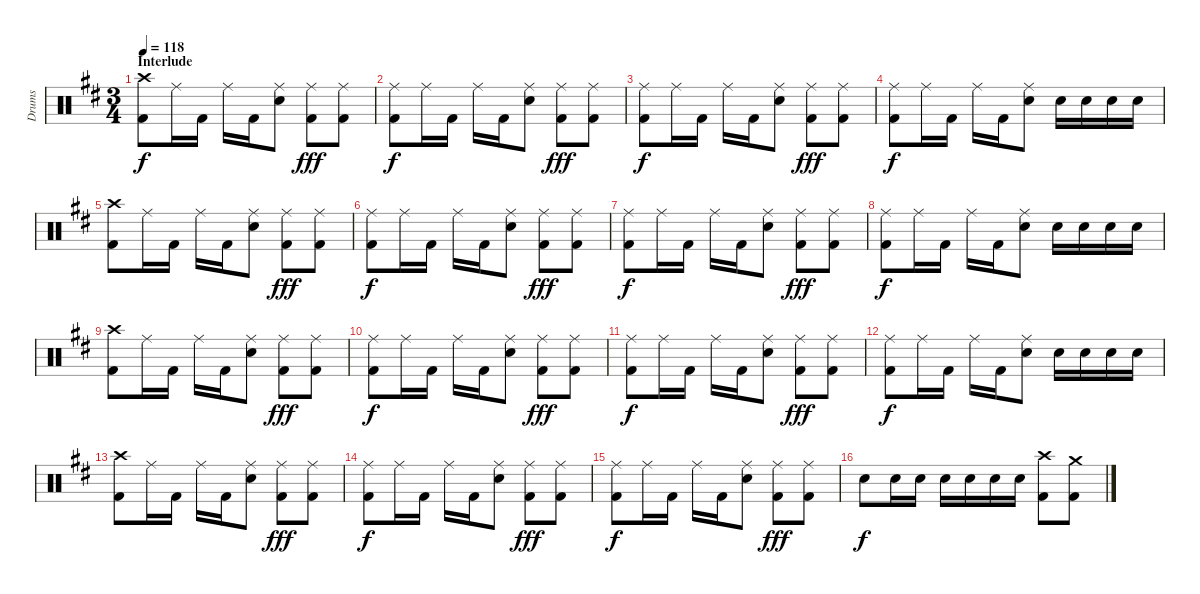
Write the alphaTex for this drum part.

\track ("Drums" "Drums") {instrument percussion}
\staff {score}
\articulation defaults
\ts (3 4)
\section ("" "Interlude")
\tempo 118
\clef neutral
\ks bminor
("Crash high (hit)" "Kick (hit) 2").8{dy f} "Ride (middle)".16 "Kick (hit) 2".16 "Ride (middle)".16 "Kick (hit) 2".16 ("Ride (middle)" "Snare (hit) 2").8 ("Ride (middle)" "Kick (hit) 2").8{dy fff} ("Ride (middle)" "Kick (hit) 2").8 |
("Ride (middle)" "Kick (hit) 2").8{dy f} "Ride (middle)".16 "Kick (hit) 2".16 "Ride (middle)".16 "Kick (hit) 2".16 ("Ride (middle)" "Snare (hit) 2").8 ("Ride (middle)" "Kick (hit) 2").8{dy fff} ("Ride (middle)" "Kick (hit) 2").8 |
("Ride (middle)" "Kick (hit) 2").8{dy f} "Ride (middle)".16 "Kick (hit) 2".16 "Ride (middle)".16 "Kick (hit) 2".16 ("Ride (middle)" "Snare (hit) 2").8 ("Ride (middle)" "Kick (hit) 2").8{dy fff} ("Ride (middle)" "Kick (hit) 2").8 |
("Ride (middle)" "Kick (hit) 2").8{dy f} "Ride (middle)".16 "Kick (hit) 2".16 "Ride (middle)".16 "Kick (hit) 2".16 ("Ride (middle)" "Snare (hit) 2").8 "Snare (hit) 2".16 "Snare (hit) 2".16 "Snare (hit) 2".16 "Snare (hit) 2".16 |
("Crash high (hit)" "Kick (hit) 2").8 "Ride (middle)".16 "Kick (hit) 2".16 "Ride (middle)".16 "Kick (hit) 2".16 ("Ride (middle)" "Snare (hit) 2").8 ("Ride (middle)" "Kick (hit) 2").8{dy fff} ("Ride (middle)" "Kick (hit) 2").8 |
("Ride (middle)" "Kick (hit) 2").8{dy f} "Ride (middle)".16 "Kick (hit) 2".16 "Ride (middle)".16 "Kick (hit) 2".16 ("Ride (middle)" "Snare (hit) 2").8 ("Ride (middle)" "Kick (hit) 2").8{dy fff} ("Ride (middle)" "Kick (hit) 2").8 |
("Ride (middle)" "Kick (hit) 2").8{dy f} "Ride (middle)".16 "Kick (hit) 2".16 "Ride (middle)".16 "Kick (hit) 2".16 ("Ride (middle)" "Snare (hit) 2").8 ("Ride (middle)" "Kick (hit) 2").8{dy fff} ("Ride (middle)" "Kick (hit) 2").8 |
("Ride (middle)" "Kick (hit) 2").8{dy f} "Ride (middle)".16 "Kick (hit) 2".16 "Ride (middle)".16 "Kick (hit) 2".16 ("Ride (middle)" "Snare (hit) 2").8 "Snare (hit) 2".16 "Snare (hit) 2".16 "Snare (hit) 2".16 "Snare (hit) 2".16 |
("Crash high (hit)" "Kick (hit) 2").8 "Ride (middle)".16 "Kick (hit) 2".16 "Ride (middle)".16 "Kick (hit) 2".16 ("Ride (middle)" "Snare (hit) 2").8 ("Ride (middle)" "Kick (hit) 2").8{dy fff} ("Ride (middle)" "Kick (hit) 2").8 |
("Ride (middle)" "Kick (hit) 2").8{dy f} "Ride (middle)".16 "Kick (hit) 2".16 "Ride (middle)".16 "Kick (hit) 2".16 ("Ride (middle)" "Snare (hit) 2").8 ("Ride (middle)" "Kick (hit) 2").8{dy fff} ("Ride (middle)" "Kick (hit) 2").8 |
("Ride (middle)" "Kick (hit) 2").8{dy f} "Ride (middle)".16 "Kick (hit) 2".16 "Ride (middle)".16 "Kick (hit) 2".16 ("Ride (middle)" "Snare (hit) 2").8 ("Ride (middle)" "Kick (hit) 2").8{dy fff} ("Ride (middle)" "Kick (hit) 2").8 |
("Ride (middle)" "Kick (hit) 2").8{dy f} "Ride (middle)".16 "Kick (hit) 2".16 "Ride (middle)".16 "Kick (hit) 2".16 ("Ride (middle)" "Snare (hit) 2").8 "Snare (hit) 2".16 "Snare (hit) 2".16 "Snare (hit) 2".16 "Snare (hit) 2".16 |
("Crash high (hit)" "Kick (hit) 2").8 "Ride (middle)".16 "Kick (hit) 2".16 "Ride (middle)".16 "Kick (hit) 2".16 ("Ride (middle)" "Snare (hit) 2").8 ("Ride (middle)" "Kick (hit) 2").8{dy fff} ("Ride (middle)" "Kick (hit) 2").8 |
("Ride (middle)" "Kick (hit) 2").8{dy f} "Ride (middle)".16 "Kick (hit) 2".16 "Ride (middle)".16 "Kick (hit) 2".16 ("Ride (middle)" "Snare (hit) 2").8 ("Ride (middle)" "Kick (hit) 2").8{dy fff} ("Ride (middle)" "Kick (hit) 2").8 |
("Ride (middle)" "Kick (hit) 2").8{dy f} "Ride (middle)".16 "Kick (hit) 2".16 "Ride (middle)".16 "Kick (hit) 2".16 ("Ride (middle)" "Snare (hit) 2").8 ("Ride (middle)" "Kick (hit) 2").8{dy fff} ("Ride (middle)" "Kick (hit) 2").8 |
"Snare (hit) 2".8{dy f} "Snare (hit) 2".16 "Snare (hit) 2".16 "Snare (hit) 2".16 "Snare (hit) 2".16 "Snare (hit) 2".16 "Snare (hit) 2".16 ("Crash high (hit)" "Kick (hit) 2").8 ("Crash medium (hit)" "Kick (hit) 2").8
